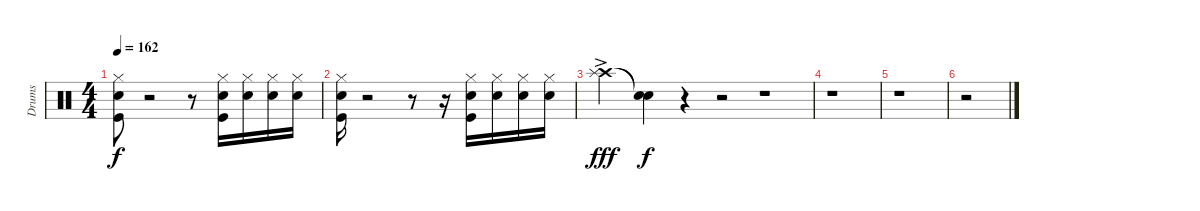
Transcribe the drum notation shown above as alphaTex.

\track ("Drums" "Drums") {instrument percussion}
\staff {score}
\articulation defaults
\ts (4 4)
\tempo 162
\clef neutral
\ks c
("Snare (hit) 2" "Kick (hit)" "Hi-Hat (closed)").8{dy f} r.2 r.8 ("Snare (hit) 2" "Kick (hit)" "Hi-Hat (closed)").16 ("Hi-Hat (closed)" "Snare (hit) 2").16 ("Hi-Hat (closed)" "Snare (hit) 2").16 ("Hi-Hat (closed)" "Snare (hit) 2").16 |
("Snare (hit) 2" "Kick (hit)" "Hi-Hat (closed)").16 r.2 r.8 r.16 ("Snare (hit) 2" "Kick (hit)" "Hi-Hat (closed)").16 ("Hi-Hat (closed)" "Snare (hit) 2").16 ("Hi-Hat (closed)" "Snare (hit) 2").16 ("Hi-Hat (closed)" "Snare (hit) 2").16 |
("Crash high (hit)"{ac} "Splash (hit)"{ac}).2{dy fff} ("Snare (hit)"{t} "Snare (hit)"{t}).4{dy f} r.4 r.2 r.1 |
r.1 |
r.1 |
r.2
